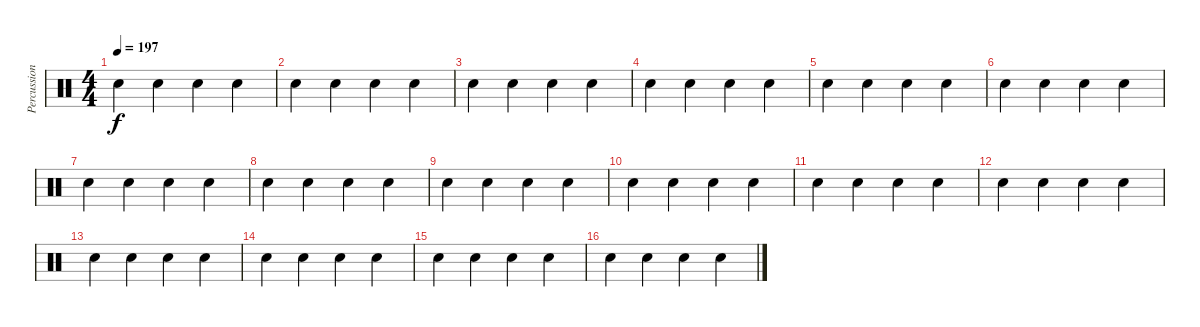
\track ("Percussion" "Percussion") {instrument percussion}
\staff {score}
\articulation defaults
\ts (4 4)
\tempo 197
\clef neutral
\ks c "Electric Snare (hit)".4{dy f} "Electric Snare (hit)".4 "Electric Snare (hit)".4 "Electric Snare (hit)".4
|
"Electric Snare (hit)".4 "Electric Snare (hit)".4 "Electric Snare (hit)".4 "Electric Snare (hit)".4 |
"Electric Snare (hit)".4 "Electric Snare (hit)".4 "Electric Snare (hit)".4 "Electric Snare (hit)".4 |
"Electric Snare (hit)".4 "Electric Snare (hit)".4 "Electric Snare (hit)".4 "Electric Snare (hit)".4 |
"Electric Snare (hit)".4 "Electric Snare (hit)".4 "Electric Snare (hit)".4 "Electric Snare (hit)".4 |
"Electric Snare (hit)".4 "Electric Snare (hit)".4 "Electric Snare (hit)".4 "Electric Snare (hit)".4 |
"Electric Snare (hit)".4 "Electric Snare (hit)".4 "Electric Snare (hit)".4 "Electric Snare (hit)".4 |
"Electric Snare (hit)".4 "Electric Snare (hit)".4 "Electric Snare (hit)".4 "Electric Snare (hit)".4 |
"Electric Snare (hit)".4 "Electric Snare (hit)".4 "Electric Snare (hit)".4 "Electric Snare (hit)".4 |
"Electric Snare (hit)".4 "Electric Snare (hit)".4 "Electric Snare (hit)".4 "Electric Snare (hit)".4 |
"Electric Snare (hit)".4 "Electric Snare (hit)".4 "Electric Snare (hit)".4 "Electric Snare (hit)".4 |
"Electric Snare (hit)".4 "Electric Snare (hit)".4 "Electric Snare (hit)".4 "Electric Snare (hit)".4 |
"Electric Snare (hit)".4 "Electric Snare (hit)".4 "Electric Snare (hit)".4 "Electric Snare (hit)".4 |
"Electric Snare (hit)".4 "Electric Snare (hit)".4 "Electric Snare (hit)".4 "Electric Snare (hit)".4 |
"Electric Snare (hit)".4 "Electric Snare (hit)".4 "Electric Snare (hit)".4 "Electric Snare (hit)".4 |
"Electric Snare (hit)".4 "Electric Snare (hit)".4 "Electric Snare (hit)".4 "Electric Snare (hit)".4
